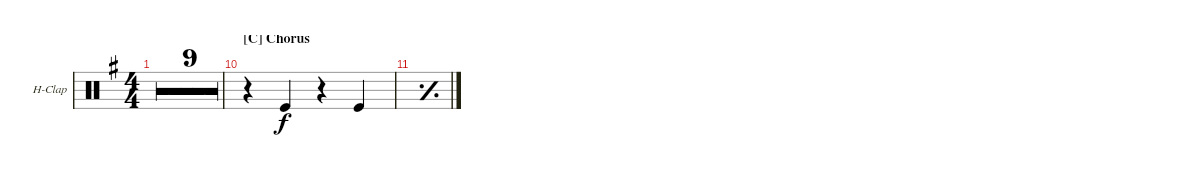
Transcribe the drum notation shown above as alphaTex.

\defaultSystemsLayout 4
\bracketExtendMode groupsimilarinstruments
\firstSystemTrackNameOrientation horizontal
\otherSystemsTrackNameOrientation horizontal
\track ("Hand Clap" "H-Clap") {multiBarRest instrument percussion}
\staff {score}
\articulation defaults
\ts (4 4)
\tempo 98
\clef neutral
\ks g
r.1{dy f} |
r.1 |
r.1 |
r.1 |
r.1 |
r.1 |
r.1 |
r.1 |
r.1 |
\section ("C" "Chorus")
r.4 "Kick (hit)".4 r.4 "Kick (hit)".4 |
\simile simple
